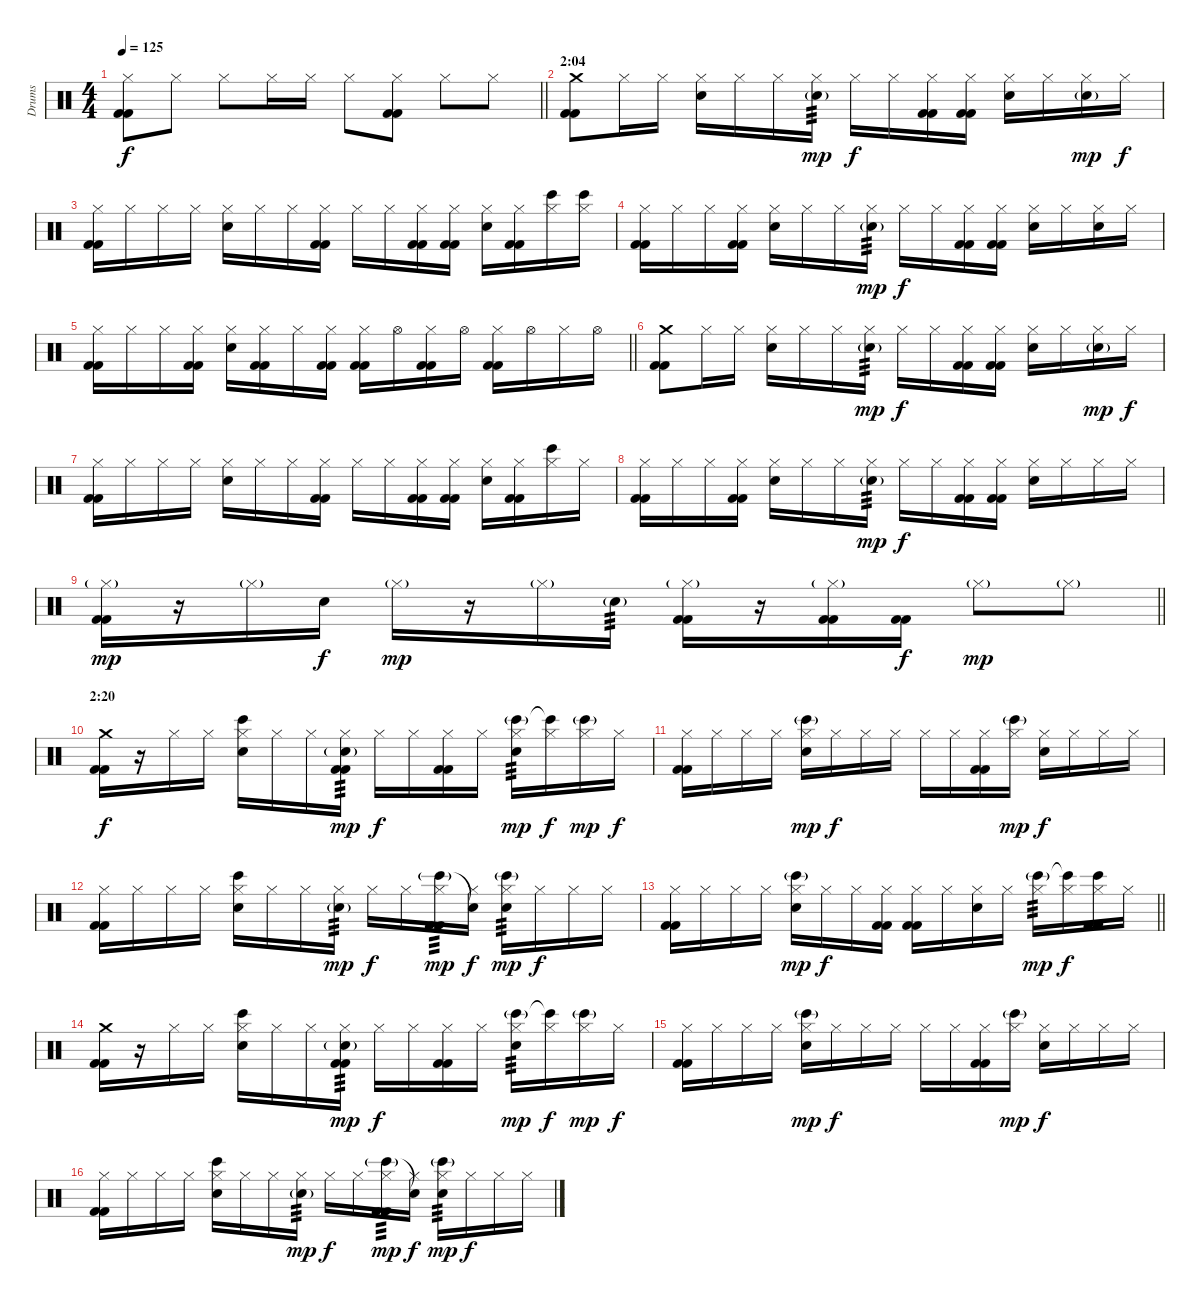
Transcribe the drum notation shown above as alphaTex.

\track ("Drums" "Drums") {instrument percussion}
\staff {score}
\articulation defaults
\ts (4 4)
\tempo 125
\clef neutral
\barLineRight lightlight
\ks c
("Hi-Hat (closed)" "Kick (hit) 2" "Kick (hit) 2").8{dy f} "Hi-Hat (closed)".8 "Hi-Hat (closed)".8 "Hi-Hat (closed)".16 "Hi-Hat (closed)".16 "Hi-Hat (closed)".8 ("Hi-Hat (closed)" "Kick (hit) 2" "Kick (hit) 2").8 "Hi-Hat (closed)".8 "Hi-Hat (closed)".8 |
\section ("" "2:04")
("Crash medium (hit)" "Kick (hit) 2" "Kick (hit) 2").8 "Hi-Hat (closed)".16 "Hi-Hat (closed)".16 ("Hi-Hat (closed)" "Electric Snare (hit)").16 "Hi-Hat (closed)".16 "Hi-Hat (closed)".16 ("Hi-Hat (closed)" "Electric Snare (hit)"{g}).16{tp 3 dy mp} "Hi-Hat (closed)".16{dy f} "Hi-Hat (closed)".16 ("Hi-Hat (closed)" "Kick (hit) 2" "Kick (hit) 2").16 ("Hi-Hat (closed)" "Kick (hit) 2" "Kick (hit) 2").16 ("Hi-Hat (closed)" "Electric Snare (hit)").16 "Hi-Hat (closed)".16 ("Hand Clap (hit)"{g} "Hi-Hat (closed)").16{dy mp} "Hi-Hat (closed)".16{dy f} |
("Hi-Hat (closed)" "Kick (hit) 2" "Kick (hit) 2").16 "Hi-Hat (closed)".16 "Hi-Hat (closed)".16 "Hi-Hat (closed)".16 ("Hi-Hat (closed)" "Electric Snare (hit)").16 "Hi-Hat (closed)".16 "Hi-Hat (closed)".16 ("Hi-Hat (closed)" "Kick (hit) 2" "Kick (hit) 2").16 "Hi-Hat (closed)".16 "Hi-Hat (closed)".16 ("Hi-Hat (closed)" "Kick (hit) 2" "Kick (hit) 2").16 ("Hi-Hat (closed)" "Kick (hit) 2" "Kick (hit) 2").16 ("Hi-Hat (closed)" "Electric Snare (hit)").16 ("Hi-Hat (closed)" "Kick (hit) 2" "Kick (hit) 2").16 ("Bongo High (hit)" "Hi-Hat (closed)").16 ("Bongo High (hit)" "Hi-Hat (closed)").16 |
("Hi-Hat (closed)" "Kick (hit) 2" "Kick (hit) 2").16 "Hi-Hat (closed)".16 "Hi-Hat (closed)".16 ("Hi-Hat (closed)" "Kick (hit) 2" "Kick (hit) 2").16 ("Hi-Hat (closed)" "Electric Snare (hit)").16 "Hi-Hat (closed)".16 "Hi-Hat (closed)".16 ("Hi-Hat (closed)" "Electric Snare (hit)"{g}).16{tp 3 dy mp} "Hi-Hat (closed)".16{dy f} "Hi-Hat (closed)".16 ("Hi-Hat (closed)" "Kick (hit) 2" "Kick (hit) 2").16 ("Hi-Hat (closed)" "Kick (hit) 2" "Kick (hit) 2").16 ("Hi-Hat (closed)" "Electric Snare (hit)").16 "Hi-Hat (closed)".16 ("Hand Clap (hit)" "Hi-Hat (closed)").16 "Hi-Hat (closed)".16 |
\barLineRight lightlight
("Hi-Hat (closed)" "Kick (hit) 2" "Kick (hit) 2").16 "Hi-Hat (closed)".16 "Hi-Hat (closed)".16 ("Hi-Hat (closed)" "Kick (hit) 2" "Kick (hit) 2").16 ("Hi-Hat (closed)" "Electric Snare (hit)").16 ("Hi-Hat (closed)" "Kick (hit) 2" "Kick (hit) 2").16 "Hi-Hat (closed)".16 ("Hi-Hat (closed)" "Kick (hit) 2" "Kick (hit) 2").16 ("Hi-Hat (closed)" "Kick (hit) 2" "Kick (hit) 2").16 "Hi-Hat (open)".16 ("Hi-Hat (closed)" "Kick (hit) 2" "Kick (hit) 2").16 "Hi-Hat (open)".16 ("Hi-Hat (closed)" "Kick (hit) 2" "Kick (hit) 2").16 "Hi-Hat (open)".16 "Hi-Hat (closed)".16 "Hi-Hat (open)".16 |
("Crash medium (hit)" "Kick (hit) 2" "Kick (hit) 2").8 "Hi-Hat (closed)".16 "Hi-Hat (closed)".16 ("Hi-Hat (closed)" "Electric Snare (hit)").16 "Hi-Hat (closed)".16 "Hi-Hat (closed)".16 ("Hi-Hat (closed)" "Electric Snare (hit)"{g}).16{tp 3 dy mp} "Hi-Hat (closed)".16{dy f} "Hi-Hat (closed)".16 ("Hi-Hat (closed)" "Kick (hit) 2" "Kick (hit) 2").16 ("Hi-Hat (closed)" "Kick (hit) 2" "Kick (hit) 2").16 ("Hi-Hat (closed)" "Electric Snare (hit)").16 "Hi-Hat (closed)".16 ("Hand Clap (hit)"{g} "Hi-Hat (closed)").16{dy mp} "Hi-Hat (closed)".16{dy f} |
("Hi-Hat (closed)" "Kick (hit) 2" "Kick (hit) 2").16 "Hi-Hat (closed)".16 "Hi-Hat (closed)".16 "Hi-Hat (closed)".16 ("Hi-Hat (closed)" "Electric Snare (hit)").16 "Hi-Hat (closed)".16 "Hi-Hat (closed)".16 ("Hi-Hat (closed)" "Kick (hit) 2" "Kick (hit) 2").16 "Hi-Hat (closed)".16 "Hi-Hat (closed)".16 ("Hi-Hat (closed)" "Kick (hit) 2" "Kick (hit) 2").16 ("Hi-Hat (closed)" "Kick (hit) 2" "Kick (hit) 2").16 ("Hi-Hat (closed)" "Electric Snare (hit)").16 ("Hi-Hat (closed)" "Kick (hit) 2" "Kick (hit) 2").16 ("Bongo High (hit)" "Hi-Hat (closed)").16 "Hi-Hat (closed)".16 |
("Hi-Hat (closed)" "Kick (hit) 2" "Kick (hit) 2").16 "Hi-Hat (closed)".16 "Hi-Hat (closed)".16 ("Hi-Hat (closed)" "Kick (hit) 2" "Kick (hit) 2").16 ("Hi-Hat (closed)" "Electric Snare (hit)").16 "Hi-Hat (closed)".16 "Hi-Hat (closed)".16 ("Hi-Hat (closed)" "Electric Snare (hit)"{g}).16{tp 3 dy mp} "Hi-Hat (closed)".16{dy f} "Hi-Hat (closed)".16 ("Hi-Hat (closed)" "Kick (hit) 2" "Kick (hit) 2").16 ("Hi-Hat (closed)" "Kick (hit) 2" "Kick (hit) 2").16 ("Hi-Hat (closed)" "Electric Snare (hit)").16 "Hi-Hat (closed)".16 "Hi-Hat (closed)".16 "Hi-Hat (closed)".16 |
\barLineRight lightlight
("Hi-Hat (closed)"{g} "Kick (hit) 2" "Kick (hit) 2").16{dy mp} r.16 "Hi-Hat (closed)"{g}.16 "Electric Snare (hit)".16{dy f} "Hi-Hat (closed)"{g}.16{dy mp} r.16 "Hi-Hat (closed)"{g}.16 "Electric Snare (hit)"{g}.16{tp 3} ("Hi-Hat (closed)"{g} "Kick (hit) 2" "Kick (hit) 2").16 r.16 ("Hi-Hat (closed)"{g} "Kick (hit) 2" "Kick (hit) 2").16 ("Kick (hit) 2" "Kick (hit) 2").16{dy f} "Hi-Hat (closed)"{g}.8{dy mp} "Hi-Hat (closed)"{g}.8 |
\section ("" "2:20")
("Crash medium (hit)" "Kick (hit) 2" "Kick (hit) 2").16{dy f} r.16 "Hi-Hat (closed)".16 "Hi-Hat (closed)".16 ("Bongo High (hit)" "Hi-Hat (closed)" "Electric Snare (hit)").16 "Hi-Hat (closed)".16 "Hi-Hat (closed)".16 ("Hi-Hat (closed)" "Electric Snare (hit)"{g} "Kick (hit) 2" "Kick (hit) 2").16{tp 3 dy mp} "Hi-Hat (closed)".16{dy f} "Hi-Hat (closed)".16 ("Hi-Hat (closed)" "Kick (hit) 2" "Kick (hit) 2").16 "Hi-Hat (closed)".16 ("Bongo High (hit)"{g} "Hi-Hat (closed)" "Electric Snare (hit)").16{tp 3 dy mp} ("Bongo High (hit)"{t} "Hi-Hat (closed)").16{dy f} ("Bongo High (hit)"{g} "Hi-Hat (closed)").16{dy mp} "Hi-Hat (closed)".16{dy f} |
("Hi-Hat (closed)" "Kick (hit) 2" "Kick (hit) 2").16 "Hi-Hat (closed)".16 "Hi-Hat (closed)".16 "Hi-Hat (closed)".16 ("Bongo High (hit)"{g} "Hi-Hat (closed)" "Electric Snare (hit)").16{dy mp} "Hi-Hat (closed)".16{dy f} "Hi-Hat (closed)".16 "Hi-Hat (closed)".16 "Hi-Hat (closed)".16 "Hi-Hat (closed)".16 ("Hi-Hat (closed)" "Kick (hit) 2" "Kick (hit) 2").16 ("Bongo High (hit)"{g} "Hi-Hat (closed)").16{dy mp} ("Hi-Hat (closed)" "Electric Snare (hit)").16{dy f} "Hi-Hat (closed)".16 "Hi-Hat (closed)".16 "Hi-Hat (closed)".16 |
("Hi-Hat (closed)" "Kick (hit) 2" "Kick (hit) 2").16 "Hi-Hat (closed)".16 "Hi-Hat (closed)".16 "Hi-Hat (closed)".16 ("Bongo High (hit)" "Hi-Hat (closed)" "Electric Snare (hit)").16 "Hi-Hat (closed)".16 "Hi-Hat (closed)".16 ("Hi-Hat (closed)" "Electric Snare (hit)"{g}).16{tp 3 dy mp} "Hi-Hat (closed)".16{dy f} "Hi-Hat (closed)".16 ("Bongo High (hit)"{g} "Hi-Hat (closed)" "Kick (hit) 2" "Kick (hit) 2").16{tp 3 dy mp} ("Snare (hit)"{t} "Hi-Hat (closed)").16{dy f} ("Bongo High (hit)"{g} "Hi-Hat (closed)" "Electric Snare (hit)").16{tp 3 dy mp} "Hi-Hat (closed)".16{dy f} "Hi-Hat (closed)".16 "Hi-Hat (closed)".16 |
\barLineRight lightlight
("Hi-Hat (closed)" "Kick (hit) 2" "Kick (hit) 2").16 "Hi-Hat (closed)".16 "Hi-Hat (closed)".16 "Hi-Hat (closed)".16 ("Bongo High (hit)"{g} "Hi-Hat (closed)" "Electric Snare (hit)").16{dy mp} "Hi-Hat (closed)".16{dy f} "Hi-Hat (closed)".16 ("Hi-Hat (closed)" "Kick (hit) 2" "Kick (hit) 2").16 ("Hi-Hat (closed)" "Kick (hit) 2" "Kick (hit) 2").16 "Hi-Hat (closed)".16 ("Hi-Hat (closed)" "Electric Snare (hit)").16 "Hi-Hat (closed)".16 ("Bongo High (hit)"{g} "Hi-Hat (closed)").16{tp 3 dy mp} ("Bongo High (hit)"{t} "Hi-Hat (closed)").16{dy f} ("Bongo High (hit)" "Hi-Hat (closed)" "Kick (hit) 2" "Kick (hit) 2").16 "Hi-Hat (closed)".16 |
("Crash medium (hit)" "Kick (hit) 2" "Kick (hit) 2").16 r.16 "Hi-Hat (closed)".16 "Hi-Hat (closed)".16 ("Bongo High (hit)" "Hi-Hat (closed)" "Electric Snare (hit)").16 "Hi-Hat (closed)".16 "Hi-Hat (closed)".16 ("Hi-Hat (closed)" "Electric Snare (hit)"{g} "Kick (hit) 2" "Kick (hit) 2").16{tp 3 dy mp} "Hi-Hat (closed)".16{dy f} "Hi-Hat (closed)".16 ("Hi-Hat (closed)" "Kick (hit) 2" "Kick (hit) 2").16 "Hi-Hat (closed)".16 ("Bongo High (hit)"{g} "Hi-Hat (closed)" "Electric Snare (hit)").16{tp 3 dy mp} ("Bongo High (hit)"{t} "Hi-Hat (closed)").16{dy f} ("Bongo High (hit)"{g} "Hi-Hat (closed)").16{dy mp} "Hi-Hat (closed)".16{dy f} |
("Hi-Hat (closed)" "Kick (hit) 2" "Kick (hit) 2").16 "Hi-Hat (closed)".16 "Hi-Hat (closed)".16 "Hi-Hat (closed)".16 ("Bongo High (hit)"{g} "Hi-Hat (closed)" "Electric Snare (hit)").16{dy mp} "Hi-Hat (closed)".16{dy f} "Hi-Hat (closed)".16 "Hi-Hat (closed)".16 "Hi-Hat (closed)".16 "Hi-Hat (closed)".16 ("Hi-Hat (closed)" "Kick (hit) 2" "Kick (hit) 2").16 ("Bongo High (hit)"{g} "Hi-Hat (closed)").16{dy mp} ("Hi-Hat (closed)" "Electric Snare (hit)").16{dy f} "Hi-Hat (closed)".16 "Hi-Hat (closed)".16 "Hi-Hat (closed)".16 |
("Hi-Hat (closed)" "Kick (hit) 2" "Kick (hit) 2").16 "Hi-Hat (closed)".16 "Hi-Hat (closed)".16 "Hi-Hat (closed)".16 ("Bongo High (hit)" "Hi-Hat (closed)" "Electric Snare (hit)").16 "Hi-Hat (closed)".16 "Hi-Hat (closed)".16 ("Hi-Hat (closed)" "Electric Snare (hit)"{g}).16{tp 3 dy mp} "Hi-Hat (closed)".16{dy f} "Hi-Hat (closed)".16 ("Bongo High (hit)"{g} "Hi-Hat (closed)" "Kick (hit) 2" "Kick (hit) 2").16{tp 3 dy mp} ("Snare (hit)"{t} "Hi-Hat (closed)").16{dy f} ("Bongo High (hit)"{g} "Hi-Hat (closed)" "Electric Snare (hit)").16{tp 3 dy mp} "Hi-Hat (closed)".16{dy f} "Hi-Hat (closed)".16 "Hi-Hat (closed)".16
